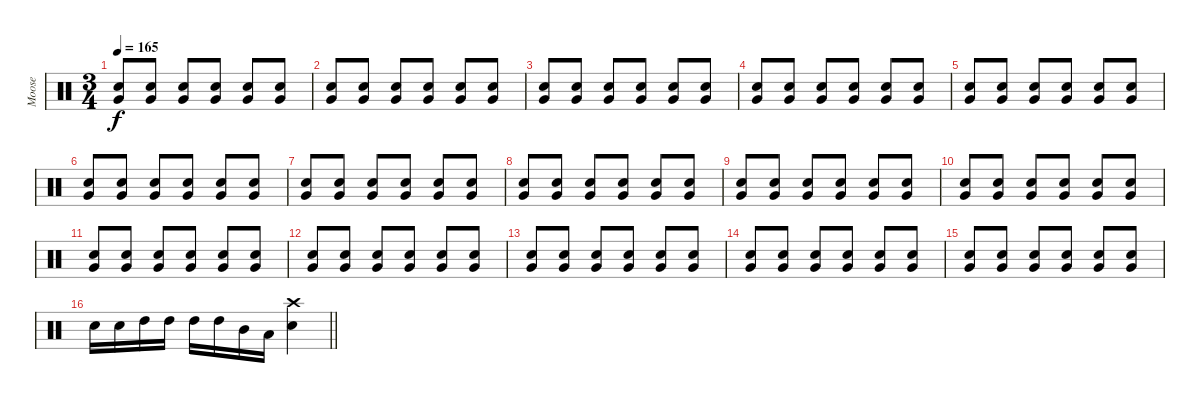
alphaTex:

\track ("Moose" "Moose") {instrument percussion}
\staff {score}
\articulation defaults
\ts (3 4)
\tempo 165
\clef neutral
\ks c
("Electric Snare (hit)" "Very Low Tom (hit)").8{dy f volume 4} ("Electric Snare (hit)" "Very Low Tom (hit)").8 ("Electric Snare (hit)" "Very Low Tom (hit)").8 ("Electric Snare (hit)" "Very Low Tom (hit)").8 ("Electric Snare (hit)" "Very Low Tom (hit)").8 ("Electric Snare (hit)" "Very Low Tom (hit)").8 |
("Electric Snare (hit)" "Very Low Tom (hit)").8 ("Electric Snare (hit)" "Very Low Tom (hit)").8 ("Electric Snare (hit)" "Very Low Tom (hit)").8 ("Electric Snare (hit)" "Very Low Tom (hit)").8 ("Electric Snare (hit)" "Very Low Tom (hit)").8 ("Electric Snare (hit)" "Very Low Tom (hit)").8 |
("Electric Snare (hit)" "Very Low Tom (hit)").8 ("Electric Snare (hit)" "Very Low Tom (hit)").8 ("Electric Snare (hit)" "Very Low Tom (hit)").8 ("Electric Snare (hit)" "Very Low Tom (hit)").8 ("Electric Snare (hit)" "Very Low Tom (hit)").8 ("Electric Snare (hit)" "Very Low Tom (hit)").8 |
("Electric Snare (hit)" "Very Low Tom (hit)").8 ("Electric Snare (hit)" "Very Low Tom (hit)").8 ("Electric Snare (hit)" "Very Low Tom (hit)").8 ("Electric Snare (hit)" "Very Low Tom (hit)").8 ("Electric Snare (hit)" "Very Low Tom (hit)").8 ("Electric Snare (hit)" "Very Low Tom (hit)").8 |
("Electric Snare (hit)" "Very Low Tom (hit)").8{volume 9} ("Electric Snare (hit)" "Very Low Tom (hit)").8 ("Electric Snare (hit)" "Very Low Tom (hit)").8 ("Electric Snare (hit)" "Very Low Tom (hit)").8 ("Electric Snare (hit)" "Very Low Tom (hit)").8 ("Electric Snare (hit)" "Very Low Tom (hit)").8 |
("Electric Snare (hit)" "Very Low Tom (hit)").8 ("Electric Snare (hit)" "Very Low Tom (hit)").8 ("Electric Snare (hit)" "Very Low Tom (hit)").8 ("Electric Snare (hit)" "Very Low Tom (hit)").8 ("Electric Snare (hit)" "Very Low Tom (hit)").8 ("Electric Snare (hit)" "Very Low Tom (hit)").8 |
("Electric Snare (hit)" "Very Low Tom (hit)").8 ("Electric Snare (hit)" "Very Low Tom (hit)").8 ("Electric Snare (hit)" "Very Low Tom (hit)").8 ("Electric Snare (hit)" "Very Low Tom (hit)").8 ("Electric Snare (hit)" "Very Low Tom (hit)").8 ("Electric Snare (hit)" "Very Low Tom (hit)").8 |
("Electric Snare (hit)" "Very Low Tom (hit)").8 ("Electric Snare (hit)" "Very Low Tom (hit)").8 ("Electric Snare (hit)" "Very Low Tom (hit)").8 ("Electric Snare (hit)" "Very Low Tom (hit)").8 ("Electric Snare (hit)" "Very Low Tom (hit)").8 ("Electric Snare (hit)" "Very Low Tom (hit)").8 |
("Electric Snare (hit)" "Very Low Tom (hit)").8{volume 12} ("Electric Snare (hit)" "Very Low Tom (hit)").8 ("Electric Snare (hit)" "Very Low Tom (hit)").8 ("Electric Snare (hit)" "Very Low Tom (hit)").8 ("Electric Snare (hit)" "Very Low Tom (hit)").8 ("Electric Snare (hit)" "Very Low Tom (hit)").8 |
("Electric Snare (hit)" "Very Low Tom (hit)").8{volume 13} ("Electric Snare (hit)" "Very Low Tom (hit)").8 ("Electric Snare (hit)" "Very Low Tom (hit)").8 ("Electric Snare (hit)" "Very Low Tom (hit)").8 ("Electric Snare (hit)" "Very Low Tom (hit)").8 ("Electric Snare (hit)" "Very Low Tom (hit)").8 |
("Electric Snare (hit)" "Very Low Tom (hit)").8 ("Electric Snare (hit)" "Very Low Tom (hit)").8 ("Electric Snare (hit)" "Very Low Tom (hit)").8 ("Electric Snare (hit)" "Very Low Tom (hit)").8 ("Electric Snare (hit)" "Very Low Tom (hit)").8 ("Electric Snare (hit)" "Very Low Tom (hit)").8 |
("Electric Snare (hit)" "Very Low Tom (hit)").8 ("Electric Snare (hit)" "Very Low Tom (hit)").8 ("Electric Snare (hit)" "Very Low Tom (hit)").8 ("Electric Snare (hit)" "Very Low Tom (hit)").8 ("Electric Snare (hit)" "Very Low Tom (hit)").8 ("Electric Snare (hit)" "Very Low Tom (hit)").8 |
("Electric Snare (hit)" "Very Low Tom (hit)").8 ("Electric Snare (hit)" "Very Low Tom (hit)").8 ("Electric Snare (hit)" "Very Low Tom (hit)").8 ("Electric Snare (hit)" "Very Low Tom (hit)").8 ("Electric Snare (hit)" "Very Low Tom (hit)").8 ("Electric Snare (hit)" "Very Low Tom (hit)").8 |
("Electric Snare (hit)" "Very Low Tom (hit)").8 ("Electric Snare (hit)" "Very Low Tom (hit)").8 ("Electric Snare (hit)" "Very Low Tom (hit)").8 ("Electric Snare (hit)" "Very Low Tom (hit)").8 ("Electric Snare (hit)" "Very Low Tom (hit)").8 ("Electric Snare (hit)" "Very Low Tom (hit)").8 |
("Electric Snare (hit)" "Very Low Tom (hit)").8 ("Electric Snare (hit)" "Very Low Tom (hit)").8 ("Electric Snare (hit)" "Very Low Tom (hit)").8 ("Electric Snare (hit)" "Very Low Tom (hit)").8 ("Electric Snare (hit)" "Very Low Tom (hit)").8 ("Electric Snare (hit)" "Very Low Tom (hit)").8 |
\barLineRight lightlight "Electric Snare (hit)".16 "Electric Snare (hit)".16 "High Tom (hit)".16 "High Tom (hit)".16 "High Tom (hit)".16 "High Tom (hit)".16 "Mid Tom (hit)".16 "Low Tom (hit)".16
("Crash high (hit)" "Electric Snare (hit)").4
